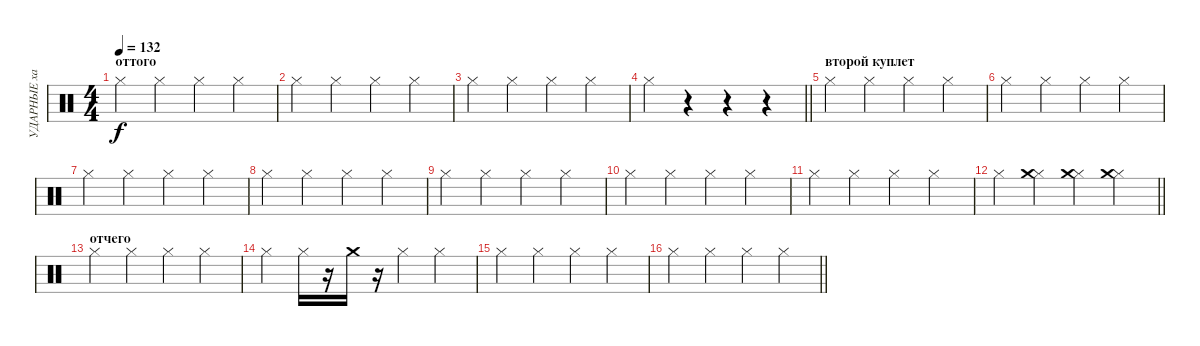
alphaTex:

\track ("УДАРНЫЕ хай хэт" "УДАРНЫЕ ха") {instrument percussion}
\staff {score}
\articulation defaults
\ts (4 4)
\section ("" "оттого")
\tempo 132
\clef neutral
\ks c "Hi-Hat (closed)".4{dy f} "Hi-Hat (closed)".4 "Hi-Hat (closed)".4 "Hi-Hat (closed)".4
|
"Hi-Hat (closed)".4 "Hi-Hat (closed)".4 "Hi-Hat (closed)".4 "Hi-Hat (closed)".4 |
"Hi-Hat (closed)".4 "Hi-Hat (closed)".4 "Hi-Hat (closed)".4 "Hi-Hat (closed)".4 |
\barLineRight lightlight "Hi-Hat (closed)".4
r.4 r.4 r.4 |
\section ("" "второй куплет")
"Hi-Hat (closed)".4 "Hi-Hat (closed)".4 "Hi-Hat (closed)".4 "Hi-Hat (closed)".4 |
"Hi-Hat (closed)".4 "Hi-Hat (closed)".4 "Hi-Hat (closed)".4 "Hi-Hat (closed)".4 |
"Hi-Hat (closed)".4 "Hi-Hat (closed)".4 "Hi-Hat (closed)".4 "Hi-Hat (closed)".4 |
"Hi-Hat (closed)".4 "Hi-Hat (closed)".4 "Hi-Hat (closed)".4 "Hi-Hat (closed)".4 |
"Hi-Hat (closed)".4 "Hi-Hat (closed)".4 "Hi-Hat (closed)".4 "Hi-Hat (closed)".4 |
"Hi-Hat (closed)".4 "Hi-Hat (closed)".4 "Hi-Hat (closed)".4 "Hi-Hat (closed)".4 |
"Hi-Hat (closed)".4 "Hi-Hat (closed)".4 "Hi-Hat (closed)".4 "Hi-Hat (closed)".4 |
\barLineRight lightlight "Hi-Hat (closed)".4
("Hi-Hat (closed)" "Crash medium (hit)").4 ("Hi-Hat (closed)" "Crash medium (hit)").4 ("Hi-Hat (closed)" "Crash medium (hit)").4 |
\section ("" "отчего")
"Hi-Hat (closed)".4 "Hi-Hat (closed)".4 "Hi-Hat (closed)".4 "Hi-Hat (closed)".4 |
"Hi-Hat (closed)".4 "Hi-Hat (closed)".16 r.16 "Crash medium (hit)".16 r.16 "Hi-Hat (closed)".4 "Hi-Hat (closed)".4 |
"Hi-Hat (closed)".4 "Hi-Hat (closed)".4 "Hi-Hat (closed)".4 "Hi-Hat (closed)".4 |
\barLineRight lightlight "Hi-Hat (closed)".4 "Hi-Hat (closed)".4 "Hi-Hat (closed)".4 "Hi-Hat (closed)".4
